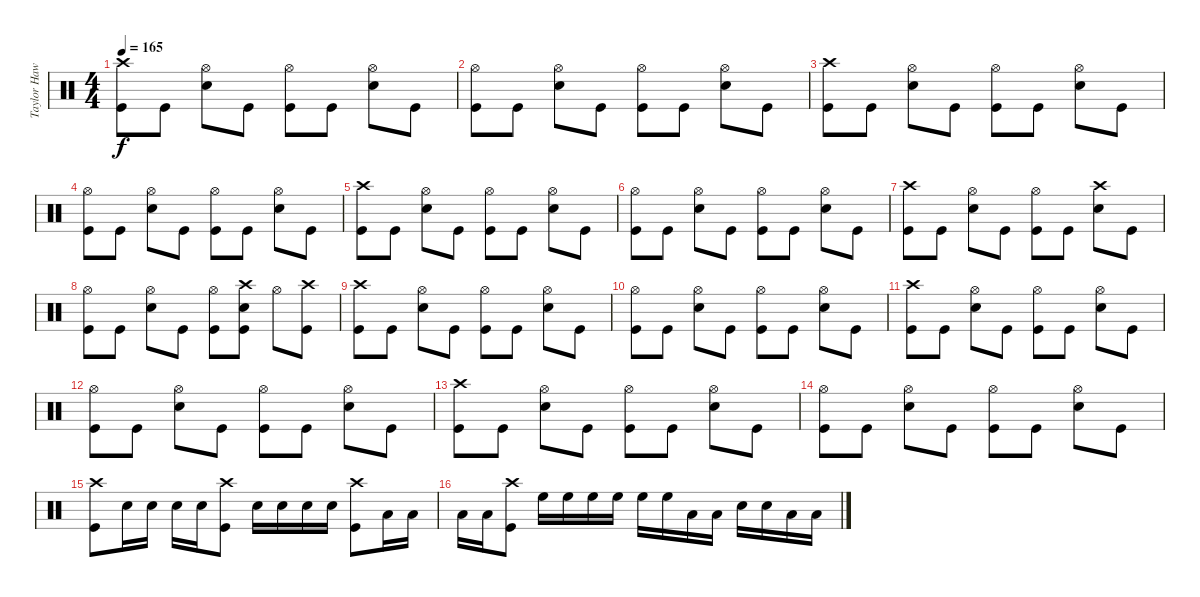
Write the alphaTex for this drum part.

\track ("Taylor Hawkins - Drums" "Taylor Haw") {instrument percussion}
\staff {score}
\articulation defaults
\ts (4 4)
\tempo 165
\clef neutral
\ks c
("Crash high (hit)" "Kick (hit)").8{dy f} "Kick (hit)".8 ("Hi-Hat (open)" "Electric Snare (hit)").8 "Kick (hit)".8 ("Hi-Hat (open)" "Kick (hit)").8 "Kick (hit)".8 ("Hi-Hat (open)" "Electric Snare (hit)").8 "Kick (hit)".8 |
("Hi-Hat (open)" "Kick (hit)").8 "Kick (hit)".8 ("Hi-Hat (open)" "Electric Snare (hit)").8 "Kick (hit)".8 ("Hi-Hat (open)" "Kick (hit)").8 "Kick (hit)".8 ("Hi-Hat (open)" "Electric Snare (hit)").8 "Kick (hit)".8 |
("Crash high (hit)" "Kick (hit)").8 "Kick (hit)".8 ("Hi-Hat (open)" "Electric Snare (hit)").8 "Kick (hit)".8 ("Hi-Hat (open)" "Kick (hit)").8 "Kick (hit)".8 ("Hi-Hat (open)" "Electric Snare (hit)").8 "Kick (hit)".8 |
("Hi-Hat (open)" "Kick (hit)").8 "Kick (hit)".8 ("Hi-Hat (open)" "Electric Snare (hit)").8 "Kick (hit)".8 ("Hi-Hat (open)" "Kick (hit)").8 "Kick (hit)".8 ("Hi-Hat (open)" "Electric Snare (hit)").8 "Kick (hit)".8 |
("Crash high (hit)" "Kick (hit)").8 "Kick (hit)".8 ("Hi-Hat (open)" "Electric Snare (hit)").8 "Kick (hit)".8 ("Hi-Hat (open)" "Kick (hit)").8 "Kick (hit)".8 ("Hi-Hat (open)" "Electric Snare (hit)").8 "Kick (hit)".8 |
("Hi-Hat (open)" "Kick (hit)").8 "Kick (hit)".8 ("Hi-Hat (open)" "Electric Snare (hit)").8 "Kick (hit)".8 ("Hi-Hat (open)" "Kick (hit)").8 "Kick (hit)".8 ("Hi-Hat (open)" "Electric Snare (hit)").8 "Kick (hit)".8 |
("Crash high (hit)" "Kick (hit)").8 "Kick (hit)".8 ("Hi-Hat (open)" "Electric Snare (hit)").8 "Kick (hit)".8 ("Hi-Hat (open)" "Kick (hit)").8 "Kick (hit)".8 ("Crash high (hit)" "Electric Snare (hit)").8 "Kick (hit)".8 |
("Hi-Hat (open)" "Kick (hit)").8 "Kick (hit)".8 ("Hi-Hat (open)" "Electric Snare (hit)").8 "Kick (hit)".8 ("Hi-Hat (open)" "Kick (hit)").8 ("Crash high (hit)" "Electric Snare (hit)" "Kick (hit)").8 "Hi-Hat (open)".8 ("Crash high (hit)" "Kick (hit)").8 |
("Crash high (hit)" "Kick (hit)").8 "Kick (hit)".8 ("Hi-Hat (open)" "Electric Snare (hit)").8 "Kick (hit)".8 ("Hi-Hat (open)" "Kick (hit)").8 "Kick (hit)".8 ("Hi-Hat (open)" "Electric Snare (hit)").8 "Kick (hit)".8 |
("Hi-Hat (open)" "Kick (hit)").8 "Kick (hit)".8 ("Hi-Hat (open)" "Electric Snare (hit)").8 "Kick (hit)".8 ("Hi-Hat (open)" "Kick (hit)").8 "Kick (hit)".8 ("Hi-Hat (open)" "Electric Snare (hit)").8 "Kick (hit)".8 |
("Crash high (hit)" "Kick (hit)").8 "Kick (hit)".8 ("Hi-Hat (open)" "Electric Snare (hit)").8 "Kick (hit)".8 ("Hi-Hat (open)" "Kick (hit)").8 "Kick (hit)".8 ("Hi-Hat (open)" "Electric Snare (hit)").8 "Kick (hit)".8 |
("Hi-Hat (open)" "Kick (hit)").8 "Kick (hit)".8 ("Hi-Hat (open)" "Electric Snare (hit)").8 "Kick (hit)".8 ("Hi-Hat (open)" "Kick (hit)").8 "Kick (hit)".8 ("Hi-Hat (open)" "Electric Snare (hit)").8 "Kick (hit)".8 |
("Crash high (hit)" "Kick (hit)").8 "Kick (hit)".8 ("Hi-Hat (open)" "Electric Snare (hit)").8 "Kick (hit)".8 ("Hi-Hat (open)" "Kick (hit)").8 "Kick (hit)".8 ("Hi-Hat (open)" "Electric Snare (hit)").8 "Kick (hit)".8 |
("Hi-Hat (open)" "Kick (hit)").8 "Kick (hit)".8 ("Hi-Hat (open)" "Electric Snare (hit)").8 "Kick (hit)".8 ("Hi-Hat (open)" "Kick (hit)").8 "Kick (hit)".8 ("Hi-Hat (open)" "Electric Snare (hit)").8 "Kick (hit)".8 |
("Crash high (hit)" "Kick (hit)").8 "Electric Snare (hit)".16 "Electric Snare (hit)".16 "Electric Snare (hit)".16 "Electric Snare (hit)".16 ("Crash high (hit)" "Kick (hit)").8 "Electric Snare (hit)".16 "Electric Snare (hit)".16 "Electric Snare (hit)".16 "Electric Snare (hit)".16 ("Crash high (hit)" "Kick (hit)").8 "Low Tom (hit)".16 "Low Tom (hit)".16 |
"Low Tom (hit)".16 "Low Tom (hit)".16 ("Crash high (hit)" "Kick (hit)").8 "High Floor Tom (hit)".16 "High Floor Tom (hit)".16 "High Floor Tom (hit)".16 "High Floor Tom (hit)".16 "High Floor Tom (hit)".16 "High Floor Tom (hit)".16 "Low Tom (hit)".16 "Low Tom (hit)".16 "Electric Snare (hit)".16 "Electric Snare (hit)".16 "Low Tom (hit)".16 "Low Tom (hit)".16
